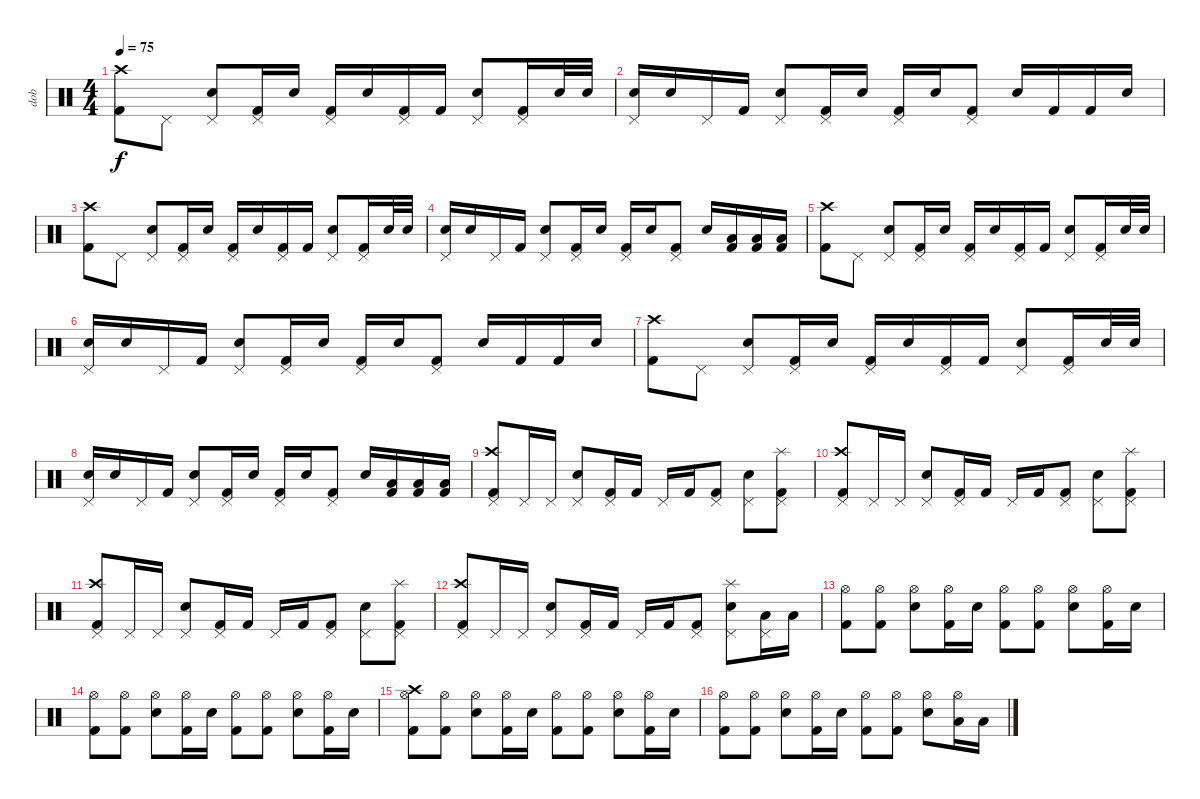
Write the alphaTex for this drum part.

\track ("dob" "dob") {instrument percussion}
\staff {score}
\articulation defaults
\ts (4 4)
\tempo 75
\clef neutral
\ks c
("Kick (hit) 2" "Crash high (hit)").8{dy f} "Pedal Hi-Hat (hit)".8 ("Snare (hit) 2" "Pedal Hi-Hat (hit)").8 ("Kick (hit) 2" "Pedal Hi-Hat (hit)").16 "Snare (hit) 2".16 ("Kick (hit) 2" "Pedal Hi-Hat (hit)").16 "Snare (hit) 2".16 ("Kick (hit) 2" "Pedal Hi-Hat (hit)").16 "Kick (hit) 2".16 ("Snare (hit) 2" "Pedal Hi-Hat (hit)").8 ("Kick (hit) 2" "Pedal Hi-Hat (hit)").16 "Snare (hit) 2".32 "Snare (hit) 2".32 |
("Snare (hit) 2" "Pedal Hi-Hat (hit)").16 "Snare (hit) 2".16 "Pedal Hi-Hat (hit)".16 "Kick (hit) 2".16 ("Snare (hit) 2" "Pedal Hi-Hat (hit)").8 ("Kick (hit) 2" "Pedal Hi-Hat (hit)").16 "Snare (hit) 2".16 ("Kick (hit) 2" "Pedal Hi-Hat (hit)").16 "Snare (hit) 2".16 ("Kick (hit) 2" "Pedal Hi-Hat (hit)").8 "Snare (hit) 2".16 "Kick (hit) 2".16 "Kick (hit) 2".16 "Snare (hit) 2".16 |
("Kick (hit) 2" "Crash high (hit)").8 "Pedal Hi-Hat (hit)".8 ("Snare (hit) 2" "Pedal Hi-Hat (hit)").8 ("Kick (hit) 2" "Pedal Hi-Hat (hit)").16 "Snare (hit) 2".16 ("Kick (hit) 2" "Pedal Hi-Hat (hit)").16 "Snare (hit) 2".16 ("Kick (hit) 2" "Pedal Hi-Hat (hit)").16 "Kick (hit) 2".16 ("Snare (hit) 2" "Pedal Hi-Hat (hit)").8 ("Kick (hit) 2" "Pedal Hi-Hat (hit)").16 "Snare (hit) 2".32 "Snare (hit) 2".32 |
("Snare (hit) 2" "Pedal Hi-Hat (hit)").16 "Snare (hit) 2".16 "Pedal Hi-Hat (hit)".16 "Kick (hit) 2".16 ("Snare (hit) 2" "Pedal Hi-Hat (hit)").8 ("Kick (hit) 2" "Pedal Hi-Hat (hit)").16 "Snare (hit) 2".16 ("Kick (hit) 2" "Pedal Hi-Hat (hit)").16 "Snare (hit) 2".16 ("Kick (hit) 2" "Pedal Hi-Hat (hit)").8 "Snare (hit) 2".16 ("Kick (hit) 2" "Low Tom (hit)").16 ("Kick (hit) 2" "Low Tom (hit)").16 ("Kick (hit) 2" "Low Tom (hit)").16 |
("Kick (hit) 2" "Crash high (hit)").8 "Pedal Hi-Hat (hit)".8 ("Snare (hit) 2" "Pedal Hi-Hat (hit)").8 ("Kick (hit) 2" "Pedal Hi-Hat (hit)").16 "Snare (hit) 2".16 ("Kick (hit) 2" "Pedal Hi-Hat (hit)").16 "Snare (hit) 2".16 ("Kick (hit) 2" "Pedal Hi-Hat (hit)").16 "Kick (hit) 2".16 ("Snare (hit) 2" "Pedal Hi-Hat (hit)").8 ("Kick (hit) 2" "Pedal Hi-Hat (hit)").16 "Snare (hit) 2".32 "Snare (hit) 2".32 |
("Snare (hit) 2" "Pedal Hi-Hat (hit)").16 "Snare (hit) 2".16 "Pedal Hi-Hat (hit)".16 "Kick (hit) 2".16 ("Snare (hit) 2" "Pedal Hi-Hat (hit)").8 ("Kick (hit) 2" "Pedal Hi-Hat (hit)").16 "Snare (hit) 2".16 ("Kick (hit) 2" "Pedal Hi-Hat (hit)").16 "Snare (hit) 2".16 ("Kick (hit) 2" "Pedal Hi-Hat (hit)").8 "Snare (hit) 2".16 "Kick (hit) 2".16 "Kick (hit) 2".16 "Snare (hit) 2".16 |
("Kick (hit) 2" "Crash high (hit)").8 "Pedal Hi-Hat (hit)".8 ("Snare (hit) 2" "Pedal Hi-Hat (hit)").8 ("Kick (hit) 2" "Pedal Hi-Hat (hit)").16 "Snare (hit) 2".16 ("Kick (hit) 2" "Pedal Hi-Hat (hit)").16 "Snare (hit) 2".16 ("Kick (hit) 2" "Pedal Hi-Hat (hit)").16 "Kick (hit) 2".16 ("Snare (hit) 2" "Pedal Hi-Hat (hit)").8 ("Kick (hit) 2" "Pedal Hi-Hat (hit)").16 "Snare (hit) 2".32 "Snare (hit) 2".32 |
("Snare (hit) 2" "Pedal Hi-Hat (hit)").16 "Snare (hit) 2".16 "Pedal Hi-Hat (hit)".16 "Kick (hit) 2".16 ("Snare (hit) 2" "Pedal Hi-Hat (hit)").8 ("Kick (hit) 2" "Pedal Hi-Hat (hit)").16 "Snare (hit) 2".16 ("Kick (hit) 2" "Pedal Hi-Hat (hit)").16 "Snare (hit) 2".16 ("Kick (hit) 2" "Pedal Hi-Hat (hit)").8 "Snare (hit) 2".16 ("Kick (hit) 2" "Low Tom (hit)").16 ("Kick (hit) 2" "Low Tom (hit)").16 ("Kick (hit) 2" "Low Tom (hit)").16 |
("Kick (hit) 2" "Pedal Hi-Hat (hit)" "Crash high (hit)").8 "Pedal Hi-Hat (hit)".16 "Pedal Hi-Hat (hit)".16 ("Snare (hit) 2" "Pedal Hi-Hat (hit)").8 ("Kick (hit) 2" "Pedal Hi-Hat (hit)").16 "Kick (hit) 2".16 "Pedal Hi-Hat (hit)".16 "Kick (hit) 2".16 ("Kick (hit) 2" "Pedal Hi-Hat (hit)").8 ("Snare (hit) 2" "Pedal Hi-Hat (hit)").8 ("Kick (hit) 2" "Pedal Hi-Hat (hit)" "Splash (hit)").8 |
("Kick (hit) 2" "Pedal Hi-Hat (hit)" "Crash high (hit)").8 "Pedal Hi-Hat (hit)".16 "Pedal Hi-Hat (hit)".16 ("Snare (hit) 2" "Pedal Hi-Hat (hit)").8 ("Kick (hit) 2" "Pedal Hi-Hat (hit)").16 "Kick (hit) 2".16 "Pedal Hi-Hat (hit)".16 "Kick (hit) 2".16 ("Kick (hit) 2" "Pedal Hi-Hat (hit)").8 ("Snare (hit) 2" "Pedal Hi-Hat (hit)").8 ("Kick (hit) 2" "Pedal Hi-Hat (hit)" "Splash (hit)").8 |
("Kick (hit) 2" "Pedal Hi-Hat (hit)" "Crash high (hit)").8 "Pedal Hi-Hat (hit)".16 "Pedal Hi-Hat (hit)".16 ("Snare (hit) 2" "Pedal Hi-Hat (hit)").8 ("Kick (hit) 2" "Pedal Hi-Hat (hit)").16 "Kick (hit) 2".16 "Pedal Hi-Hat (hit)".16 "Kick (hit) 2".16 ("Kick (hit) 2" "Pedal Hi-Hat (hit)").8 ("Snare (hit) 2" "Pedal Hi-Hat (hit)").8 ("Kick (hit) 2" "Pedal Hi-Hat (hit)" "Splash (hit)").8 |
("Kick (hit) 2" "Pedal Hi-Hat (hit)" "Crash high (hit)").8 "Pedal Hi-Hat (hit)".16 "Pedal Hi-Hat (hit)".16 ("Snare (hit) 2" "Pedal Hi-Hat (hit)").8 ("Kick (hit) 2" "Pedal Hi-Hat (hit)").16 "Kick (hit) 2".16 "Pedal Hi-Hat (hit)".16 "Kick (hit) 2".16 ("Kick (hit) 2" "Pedal Hi-Hat (hit)").8 ("Snare (hit) 2" "Pedal Hi-Hat (hit)" "Splash (hit)").8 ("Low Tom (hit)" "Pedal Hi-Hat (hit)").16 "Low Tom (hit)".16 |
("Kick (hit) 2" "Hi-Hat (open)").8 ("Kick (hit) 2" "Hi-Hat (open)").8 ("Snare (hit) 2" "Hi-Hat (open)").8 ("Kick (hit) 2" "Hi-Hat (open)").16 "Snare (hit) 2".16 ("Kick (hit) 2" "Hi-Hat (open)").8 ("Kick (hit) 2" "Hi-Hat (open)").8 ("Snare (hit) 2" "Hi-Hat (open)").8 ("Kick (hit) 2" "Hi-Hat (open)").16 "Snare (hit) 2".16 |
("Kick (hit) 2" "Hi-Hat (open)").8 ("Kick (hit) 2" "Hi-Hat (open)").8 ("Snare (hit) 2" "Hi-Hat (open)").8 ("Kick (hit) 2" "Hi-Hat (open)").16 "Snare (hit) 2".16 ("Kick (hit) 2" "Hi-Hat (open)").8 ("Kick (hit) 2" "Hi-Hat (open)").8 ("Snare (hit) 2" "Hi-Hat (open)").8 ("Kick (hit) 2" "Hi-Hat (open)").16 "Snare (hit) 2".16 |
("Kick (hit) 2" "Hi-Hat (open)" "Crash high (hit)").8 ("Kick (hit) 2" "Hi-Hat (open)").8 ("Snare (hit) 2" "Hi-Hat (open)").8 ("Kick (hit) 2" "Hi-Hat (open)").16 "Snare (hit) 2".16 ("Kick (hit) 2" "Hi-Hat (open)").8 ("Kick (hit) 2" "Hi-Hat (open)").8 ("Snare (hit) 2" "Hi-Hat (open)").8 ("Kick (hit) 2" "Hi-Hat (open)").16 "Snare (hit) 2".16 |
("Kick (hit) 2" "Hi-Hat (open)").8 ("Kick (hit) 2" "Hi-Hat (open)").8 ("Snare (hit) 2" "Hi-Hat (open)").8 ("Kick (hit) 2" "Hi-Hat (open)").16 "Snare (hit) 2".16 ("Kick (hit) 2" "Hi-Hat (open)").8 ("Kick (hit) 2" "Hi-Hat (open)").8 ("Snare (hit) 2" "Hi-Hat (open)").8 ("Low Tom (hit)" "Hi-Hat (open)").16 "Low Tom (hit)".16
